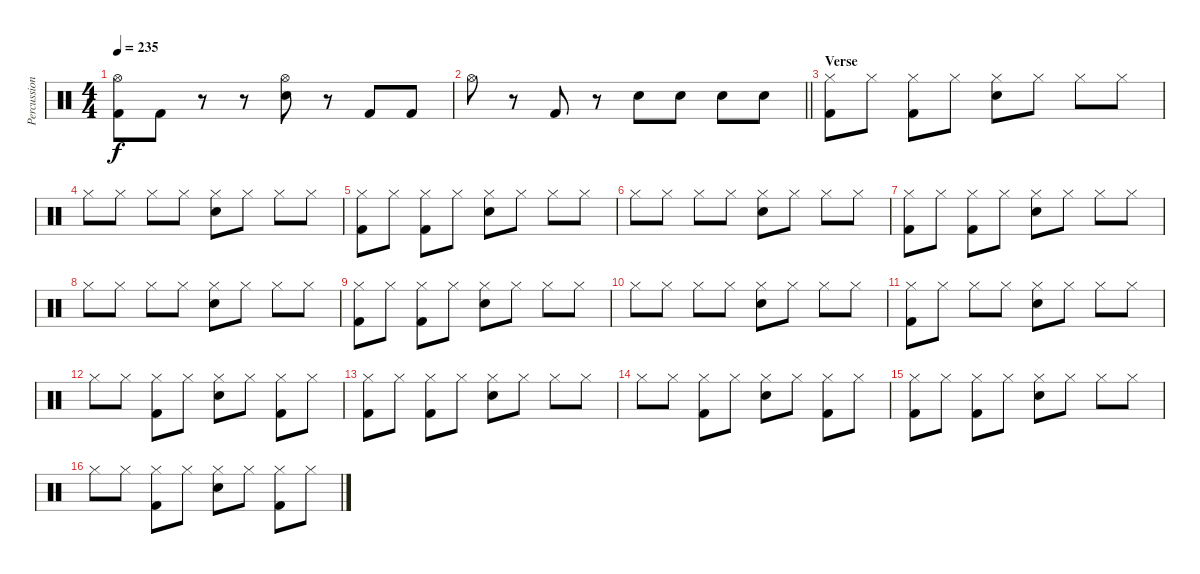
\track ("Percussion" "Percussion") {instrument percussion}
\staff {score}
\articulation defaults
\ts (4 4)
\tempo 235
\clef neutral
\ks c
("Hi-Hat (open)" "Kick (hit) 2").8{dy f} "Kick (hit) 2".8 r.8 r.8 ("Hi-Hat (open)" "Snare (hit) 2").8 r.8 "Kick (hit) 2".8 "Kick (hit) 2".8 |
\barLineRight lightlight "Hi-Hat (open)".8
r.8 "Kick (hit) 2".8 r.8 "Snare (hit) 2".8 "Snare (hit) 2".8 "Snare (hit) 2".8 "Snare (hit) 2".8 |
\section ("" "Verse")
("Hi-Hat (closed)" "Kick (hit) 2").8 "Hi-Hat (closed)".8 ("Hi-Hat (closed)" "Kick (hit) 2").8 "Hi-Hat (closed)".8 ("Hi-Hat (closed)" "Snare (hit) 2").8 "Hi-Hat (closed)".8 "Hi-Hat (closed)".8 "Hi-Hat (closed)".8 |
"Hi-Hat (closed)".8 "Hi-Hat (closed)".8 "Hi-Hat (closed)".8 "Hi-Hat (closed)".8 ("Hi-Hat (closed)" "Snare (hit) 2").8 "Hi-Hat (closed)".8 "Hi-Hat (closed)".8 "Hi-Hat (closed)".8 |
("Hi-Hat (closed)" "Kick (hit) 2").8 "Hi-Hat (closed)".8 ("Hi-Hat (closed)" "Kick (hit) 2").8 "Hi-Hat (closed)".8 ("Hi-Hat (closed)" "Snare (hit) 2").8 "Hi-Hat (closed)".8 "Hi-Hat (closed)".8 "Hi-Hat (closed)".8 |
"Hi-Hat (closed)".8 "Hi-Hat (closed)".8 "Hi-Hat (closed)".8 "Hi-Hat (closed)".8 ("Hi-Hat (closed)" "Snare (hit) 2").8 "Hi-Hat (closed)".8 "Hi-Hat (closed)".8 "Hi-Hat (closed)".8 |
("Hi-Hat (closed)" "Kick (hit) 2").8 "Hi-Hat (closed)".8 ("Hi-Hat (closed)" "Kick (hit) 2").8 "Hi-Hat (closed)".8 ("Hi-Hat (closed)" "Snare (hit) 2").8 "Hi-Hat (closed)".8 "Hi-Hat (closed)".8 "Hi-Hat (closed)".8 |
"Hi-Hat (closed)".8 "Hi-Hat (closed)".8 "Hi-Hat (closed)".8 "Hi-Hat (closed)".8 ("Hi-Hat (closed)" "Snare (hit) 2").8 "Hi-Hat (closed)".8 "Hi-Hat (closed)".8 "Hi-Hat (closed)".8 |
("Hi-Hat (closed)" "Kick (hit) 2").8 "Hi-Hat (closed)".8 ("Hi-Hat (closed)" "Kick (hit) 2").8 "Hi-Hat (closed)".8 ("Hi-Hat (closed)" "Snare (hit) 2").8 "Hi-Hat (closed)".8 "Hi-Hat (closed)".8 "Hi-Hat (closed)".8 |
"Hi-Hat (closed)".8 "Hi-Hat (closed)".8 "Hi-Hat (closed)".8 "Hi-Hat (closed)".8 ("Hi-Hat (closed)" "Snare (hit) 2").8 "Hi-Hat (closed)".8 "Hi-Hat (closed)".8 "Hi-Hat (closed)".8 |
("Hi-Hat (closed)" "Kick (hit) 2").8 "Hi-Hat (closed)".8 "Hi-Hat (closed)".8 "Hi-Hat (closed)".8 ("Hi-Hat (closed)" "Snare (hit) 2").8 "Hi-Hat (closed)".8 "Hi-Hat (closed)".8 "Hi-Hat (closed)".8 |
"Hi-Hat (closed)".8 "Hi-Hat (closed)".8 ("Hi-Hat (closed)" "Kick (hit) 2").8 "Hi-Hat (closed)".8 ("Hi-Hat (closed)" "Snare (hit) 2").8 "Hi-Hat (closed)".8 ("Hi-Hat (closed)" "Kick (hit) 2").8 "Hi-Hat (closed)".8 |
("Hi-Hat (closed)" "Kick (hit) 2").8 "Hi-Hat (closed)".8 ("Hi-Hat (closed)" "Kick (hit) 2").8 "Hi-Hat (closed)".8 ("Hi-Hat (closed)" "Snare (hit) 2").8 "Hi-Hat (closed)".8 "Hi-Hat (closed)".8 "Hi-Hat (closed)".8 |
"Hi-Hat (closed)".8 "Hi-Hat (closed)".8 ("Hi-Hat (closed)" "Kick (hit) 2").8 "Hi-Hat (closed)".8 ("Hi-Hat (closed)" "Snare (hit) 2").8 "Hi-Hat (closed)".8 ("Hi-Hat (closed)" "Kick (hit) 2").8 "Hi-Hat (closed)".8 |
("Hi-Hat (closed)" "Kick (hit) 2").8 "Hi-Hat (closed)".8 ("Hi-Hat (closed)" "Kick (hit) 2").8 "Hi-Hat (closed)".8 ("Hi-Hat (closed)" "Snare (hit) 2").8 "Hi-Hat (closed)".8 "Hi-Hat (closed)".8 "Hi-Hat (closed)".8 |
"Hi-Hat (closed)".8 "Hi-Hat (closed)".8 ("Hi-Hat (closed)" "Kick (hit) 2").8 "Hi-Hat (closed)".8 ("Hi-Hat (closed)" "Snare (hit) 2").8 "Hi-Hat (closed)".8 ("Hi-Hat (closed)" "Kick (hit) 2").8 "Hi-Hat (closed)".8
